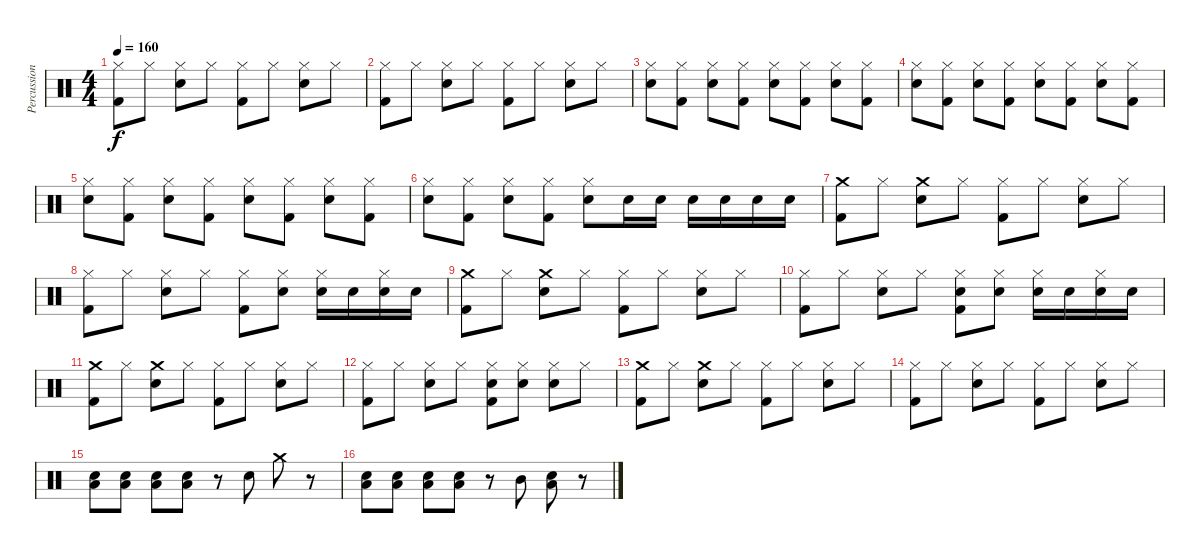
\track ("Percussion" "Percussion") {instrument percussion}
\staff {score}
\articulation defaults
\ts (4 4)
\tempo 160
\clef neutral
\ks c
("Hi-Hat (closed)" "Kick (hit) 2").8{dy f} "Hi-Hat (closed)".8 ("Hi-Hat (closed)" "Snare (hit) 2").8 "Hi-Hat (closed)".8 ("Hi-Hat (closed)" "Kick (hit) 2").8 "Hi-Hat (closed)".8 ("Hi-Hat (closed)" "Snare (hit) 2").8 "Hi-Hat (closed)".8 |
("Hi-Hat (closed)" "Kick (hit) 2").8 "Hi-Hat (closed)".8 ("Hi-Hat (closed)" "Snare (hit) 2").8 "Hi-Hat (closed)".8 ("Hi-Hat (closed)" "Kick (hit) 2").8 "Hi-Hat (closed)".8 ("Hi-Hat (closed)" "Snare (hit) 2").8 "Hi-Hat (closed)".8 |
("Hi-Hat (closed)" "Snare (hit) 2").8 ("Hi-Hat (closed)" "Kick (hit) 2").8 ("Hi-Hat (closed)" "Snare (hit) 2").8 ("Hi-Hat (closed)" "Kick (hit) 2").8 ("Hi-Hat (closed)" "Snare (hit) 2").8 ("Hi-Hat (closed)" "Kick (hit) 2").8 ("Hi-Hat (closed)" "Snare (hit) 2").8 ("Hi-Hat (closed)" "Kick (hit) 2").8 |
("Hi-Hat (closed)" "Snare (hit) 2").8 ("Hi-Hat (closed)" "Kick (hit) 2").8 ("Hi-Hat (closed)" "Snare (hit) 2").8 ("Hi-Hat (closed)" "Kick (hit) 2").8 ("Hi-Hat (closed)" "Snare (hit) 2").8 ("Hi-Hat (closed)" "Kick (hit) 2").8 ("Hi-Hat (closed)" "Snare (hit) 2").8 ("Hi-Hat (closed)" "Kick (hit) 2").8 |
("Hi-Hat (closed)" "Snare (hit) 2").8 ("Hi-Hat (closed)" "Kick (hit) 2").8 ("Hi-Hat (closed)" "Snare (hit) 2").8 ("Hi-Hat (closed)" "Kick (hit) 2").8 ("Hi-Hat (closed)" "Snare (hit) 2").8 ("Hi-Hat (closed)" "Kick (hit) 2").8 ("Hi-Hat (closed)" "Snare (hit) 2").8 ("Hi-Hat (closed)" "Kick (hit) 2").8 |
("Hi-Hat (closed)" "Snare (hit) 2").8 ("Hi-Hat (closed)" "Kick (hit) 2").8 ("Hi-Hat (closed)" "Snare (hit) 2").8 ("Hi-Hat (closed)" "Kick (hit) 2").8 ("Hi-Hat (closed)" "Snare (hit) 2").8 "Snare (hit) 2".16 "Snare (hit) 2".16 "Snare (hit) 2".16 "Snare (hit) 2".16 "Snare (hit) 2".16 "Snare (hit) 2".16 |
("Crash medium (hit)" "Kick (hit) 2").8 "Hi-Hat (closed)".8 ("Crash medium (hit)" "Snare (hit) 2").8 "Hi-Hat (closed)".8 ("Hi-Hat (closed)" "Kick (hit) 2").8 "Hi-Hat (closed)".8 ("Hi-Hat (closed)" "Snare (hit) 2").8 "Hi-Hat (closed)".8 |
("Hi-Hat (closed)" "Kick (hit) 2").8 "Hi-Hat (closed)".8 ("Hi-Hat (closed)" "Snare (hit) 2").8 "Hi-Hat (closed)".8 ("Hi-Hat (closed)" "Kick (hit) 2").8 ("Hi-Hat (closed)" "Snare (hit) 2").8 ("Hi-Hat (closed)" "Snare (hit) 2").16 "Snare (hit) 2".16 ("Hi-Hat (closed)" "Snare (hit) 2").16 "Snare (hit) 2".16 |
("Crash medium (hit)" "Kick (hit) 2").8 "Hi-Hat (closed)".8 ("Crash medium (hit)" "Snare (hit) 2").8 "Hi-Hat (closed)".8 ("Hi-Hat (closed)" "Kick (hit) 2").8 "Hi-Hat (closed)".8 ("Hi-Hat (closed)" "Snare (hit) 2").8 "Hi-Hat (closed)".8 |
("Hi-Hat (closed)" "Kick (hit) 2").8 "Hi-Hat (closed)".8 ("Hi-Hat (closed)" "Snare (hit) 2").8 "Hi-Hat (closed)".8 ("Hi-Hat (closed)" "Snare (hit) 2" "Kick (hit) 2").8 ("Hi-Hat (closed)" "Snare (hit) 2").8 ("Hi-Hat (closed)" "Snare (hit) 2").16 "Snare (hit) 2".16 ("Hi-Hat (closed)" "Snare (hit) 2").16 "Snare (hit) 2".16 |
("Crash medium (hit)" "Kick (hit) 2").8 "Hi-Hat (closed)".8 ("Crash medium (hit)" "Snare (hit) 2").8 "Hi-Hat (closed)".8 ("Hi-Hat (closed)" "Kick (hit) 2").8 "Hi-Hat (closed)".8 ("Hi-Hat (closed)" "Snare (hit) 2").8 "Hi-Hat (closed)".8 |
("Hi-Hat (closed)" "Kick (hit) 2").8 "Hi-Hat (closed)".8 ("Hi-Hat (closed)" "Snare (hit) 2").8 "Hi-Hat (closed)".8 ("Hi-Hat (closed)" "Snare (hit) 2" "Kick (hit) 2").8 ("Hi-Hat (closed)" "Snare (hit) 2").8 ("Hi-Hat (closed)" "Snare (hit) 2").8 "Hi-Hat (closed)".8 |
("Crash medium (hit)" "Kick (hit) 2").8 "Hi-Hat (closed)".8 ("Crash medium (hit)" "Snare (hit) 2").8 "Hi-Hat (closed)".8 ("Hi-Hat (closed)" "Kick (hit) 2").8 "Hi-Hat (closed)".8 ("Hi-Hat (closed)" "Snare (hit) 2").8 "Hi-Hat (closed)".8 |
("Hi-Hat (closed)" "Kick (hit) 2").8 "Hi-Hat (closed)".8 ("Hi-Hat (closed)" "Snare (hit) 2").8 "Hi-Hat (closed)".8 ("Hi-Hat (closed)" "Kick (hit) 2").8 "Hi-Hat (closed)".8 ("Hi-Hat (closed)" "Snare (hit) 2").8 "Hi-Hat (closed)".8 |
("Snare (hit) 2" "Low Floor Tom (hit)").8 ("Snare (hit) 2" "Low Floor Tom (hit)").8 ("Snare (hit) 2" "Low Floor Tom (hit)").8 ("Snare (hit) 2" "Low Floor Tom (hit)").8 r.8 "Snare (hit) 2".8 "Crash medium (hit)".8 r.8 |
("Snare (hit) 2" "Low Floor Tom (hit)").8 ("Snare (hit) 2" "Low Floor Tom (hit)").8 ("Snare (hit) 2" "Low Floor Tom (hit)").8 ("Snare (hit) 2" "Low Floor Tom (hit)").8 r.8 "Mid Tom (hit)".8 ("Snare (hit) 2" "Low Floor Tom (hit)").8 r.8
